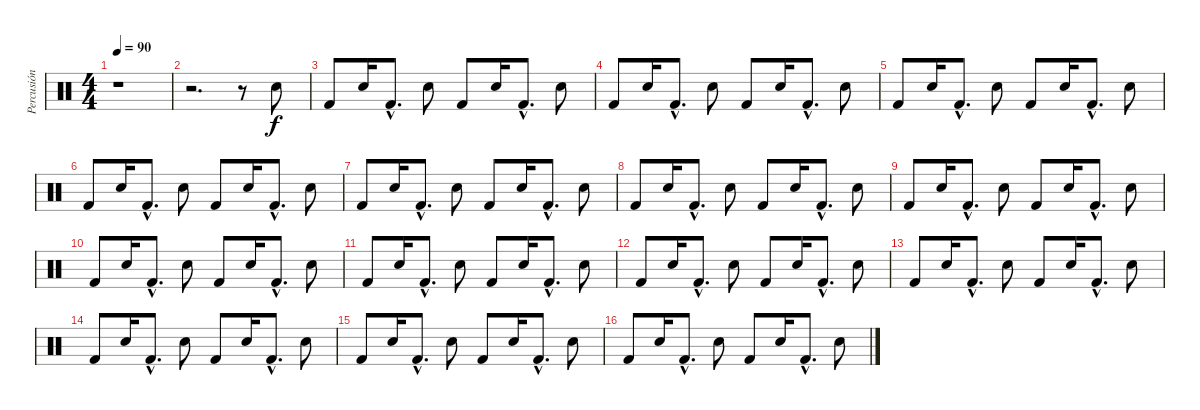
\track ("Percusión" "Percusión") {instrument percussion}
\staff {score}
\articulation defaults
\ts (4 4)
\tempo 90
\clef neutral
\ks c
r.1{dy f} |
r.2{d} r.8 "Electric Snare (hit)".8 |
"Kick (hit) 2".8 "Electric Snare (hit)".16 "Kick (hit) 2"{hac}.8{d} "Electric Snare (hit)".8 "Kick (hit) 2".8 "Electric Snare (hit)".16 "Kick (hit) 2"{hac}.8{d} "Electric Snare (hit)".8 |
"Kick (hit) 2".8 "Electric Snare (hit)".16 "Kick (hit) 2"{hac}.8{d} "Electric Snare (hit)".8 "Kick (hit) 2".8 "Electric Snare (hit)".16 "Kick (hit) 2"{hac}.8{d} "Electric Snare (hit)".8 |
"Kick (hit) 2".8 "Electric Snare (hit)".16 "Kick (hit) 2"{hac}.8{d} "Electric Snare (hit)".8 "Kick (hit) 2".8 "Electric Snare (hit)".16 "Kick (hit) 2"{hac}.8{d} "Electric Snare (hit)".8 |
"Kick (hit) 2".8 "Electric Snare (hit)".16 "Kick (hit) 2"{hac}.8{d} "Electric Snare (hit)".8 "Kick (hit) 2".8 "Electric Snare (hit)".16 "Kick (hit) 2"{hac}.8{d} "Electric Snare (hit)".8 |
"Kick (hit) 2".8 "Electric Snare (hit)".16 "Kick (hit) 2"{hac}.8{d} "Electric Snare (hit)".8 "Kick (hit) 2".8 "Electric Snare (hit)".16 "Kick (hit) 2"{hac}.8{d} "Electric Snare (hit)".8 |
"Kick (hit) 2".8 "Electric Snare (hit)".16 "Kick (hit) 2"{hac}.8{d} "Electric Snare (hit)".8 "Kick (hit) 2".8 "Electric Snare (hit)".16 "Kick (hit) 2"{hac}.8{d} "Electric Snare (hit)".8 |
"Kick (hit) 2".8 "Electric Snare (hit)".16 "Kick (hit) 2"{hac}.8{d} "Electric Snare (hit)".8 "Kick (hit) 2".8 "Electric Snare (hit)".16 "Kick (hit) 2"{hac}.8{d} "Electric Snare (hit)".8 |
"Kick (hit) 2".8 "Electric Snare (hit)".16 "Kick (hit) 2"{hac}.8{d} "Electric Snare (hit)".8 "Kick (hit) 2".8 "Electric Snare (hit)".16 "Kick (hit) 2"{hac}.8{d} "Electric Snare (hit)".8 |
"Kick (hit) 2".8 "Electric Snare (hit)".16 "Kick (hit) 2"{hac}.8{d} "Electric Snare (hit)".8 "Kick (hit) 2".8 "Electric Snare (hit)".16 "Kick (hit) 2"{hac}.8{d} "Electric Snare (hit)".8 |
"Kick (hit) 2".8 "Electric Snare (hit)".16 "Kick (hit) 2"{hac}.8{d} "Electric Snare (hit)".8 "Kick (hit) 2".8 "Electric Snare (hit)".16 "Kick (hit) 2"{hac}.8{d} "Electric Snare (hit)".8 |
"Kick (hit) 2".8 "Electric Snare (hit)".16 "Kick (hit) 2"{hac}.8{d} "Electric Snare (hit)".8 "Kick (hit) 2".8 "Electric Snare (hit)".16 "Kick (hit) 2"{hac}.8{d} "Electric Snare (hit)".8 |
"Kick (hit) 2".8 "Electric Snare (hit)".16 "Kick (hit) 2"{hac}.8{d} "Electric Snare (hit)".8 "Kick (hit) 2".8 "Electric Snare (hit)".16 "Kick (hit) 2"{hac}.8{d} "Electric Snare (hit)".8 |
"Kick (hit) 2".8 "Electric Snare (hit)".16 "Kick (hit) 2"{hac}.8{d} "Electric Snare (hit)".8 "Kick (hit) 2".8 "Electric Snare (hit)".16 "Kick (hit) 2"{hac}.8{d} "Electric Snare (hit)".8 |
"Kick (hit) 2".8 "Electric Snare (hit)".16 "Kick (hit) 2"{hac}.8{d} "Electric Snare (hit)".8 "Kick (hit) 2".8 "Electric Snare (hit)".16 "Kick (hit) 2"{hac}.8{d} "Electric Snare (hit)".8
